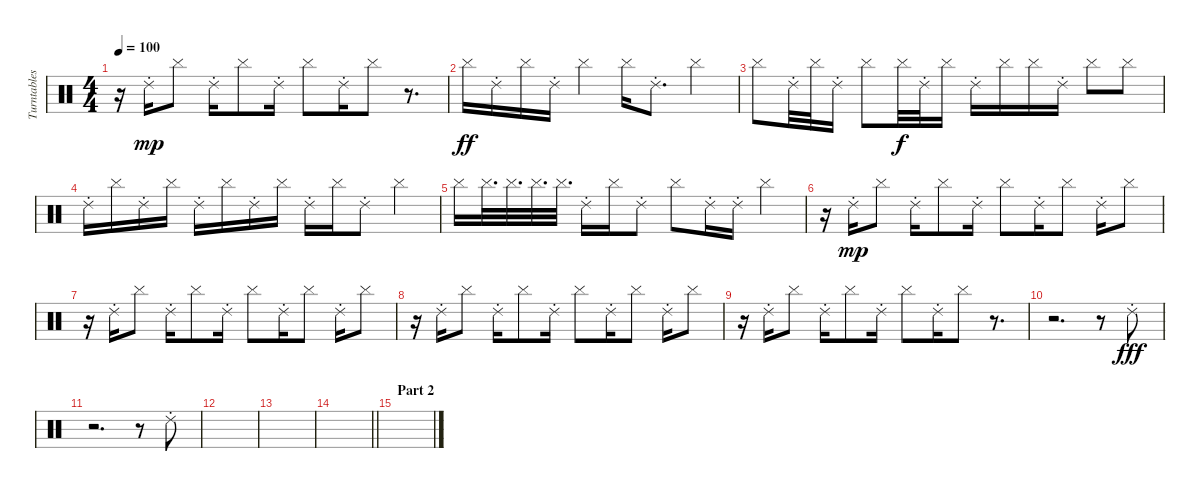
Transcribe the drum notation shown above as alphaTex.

\track ("Turntables - Joe Hahn" "Turntables") {instrument percussion}
\staff {score}
\articulation defaults
\ts (4 4)
\tempo 100
\clef neutral
\ks c
r.16{dy mp} "Ride (choke) 2".16 "Cymbal (hit)".8 "Ride (choke) 2".16 "Cymbal (hit)".8 "Ride (choke) 2".16 "Cymbal (hit)".8 "Ride (choke) 2".16 "Cymbal (hit)".8 r.8{d} |
"Cymbal (hit)".16{dy ff} "Ride (choke) 2".16 "Cymbal (hit)".16 "Ride (choke) 2".16 "Cymbal (hit)".4 "Cymbal (hit)".16 "Ride (choke) 2".8{d} "Cymbal (hit)".4 |
"Cymbal (hit)".8 "Ride (choke) 2".32 "Cymbal (hit)".32 "Ride (choke) 2".16 "Cymbal (hit)".8 "Cymbal (hit)".32{dy f} "Ride (choke) 2".32 "Cymbal (hit)".16 "Ride (choke) 2".16 "Cymbal (hit)".16 "Cymbal (hit)".16 "Ride (choke) 2".16 "Cymbal (hit)".8 "Cymbal (hit)".8 |
"Ride (choke) 2".16 "Cymbal (hit)".16 "Ride (choke) 2".16 "Cymbal (hit)".16 "Ride (choke) 2".16 "Cymbal (hit)".16 "Ride (choke) 2".16 "Cymbal (hit)".16 "Ride (choke) 2".16 "Cymbal (hit)".16 "Ride (choke) 2".8 "Cymbal (hit)".4 |
"Cymbal (hit)".16 "Cymbal (hit)".32{d} "Cymbal (hit)".32{d} "Cymbal (hit)".32{d} "Cymbal (hit)".32{d} "Ride (choke) 2".16 "Cymbal (hit)".16 "Ride (choke) 2".8 "Cymbal (hit)".8 "Ride (choke) 2".16 "Ride (choke) 2".16 "Cymbal (hit)".4 |
r.16{volume 8} "Ride (choke) 2".16{dy mp} "Cymbal (hit)".8 "Ride (choke) 2".16 "Cymbal (hit)".8 "Ride (choke) 2".16 "Cymbal (hit)".8 "Ride (choke) 2".16 "Cymbal (hit)".8 "Ride (choke) 2".16 "Cymbal (hit)".8 |
r.16 "Ride (choke) 2".16 "Cymbal (hit)".8 "Ride (choke) 2".16 "Cymbal (hit)".8 "Ride (choke) 2".16 "Cymbal (hit)".8 "Ride (choke) 2".16 "Cymbal (hit)".8 "Ride (choke) 2".16 "Cymbal (hit)".8 |
r.16{volume 16} "Ride (choke) 2".16 "Cymbal (hit)".8 "Ride (choke) 2".16 "Cymbal (hit)".8 "Ride (choke) 2".16 "Cymbal (hit)".8 "Ride (choke) 2".16 "Cymbal (hit)".8 "Ride (choke) 2".16 "Cymbal (hit)".8 |
r.16{volume 8} "Ride (choke) 2".16 "Cymbal (hit)".8 "Ride (choke) 2".16 "Cymbal (hit)".8 "Ride (choke) 2".16 "Cymbal (hit)".8 "Ride (choke) 2".16 "Cymbal (hit)".8 r.8{d} |
r.2{d} r.8 "Ride (choke) 2".8{dy fff} |
r.2{d} r.8 "Ride (choke) 2".8 |
|
|
\barLineRight lightlight
|
\section ("" "Part 2")
